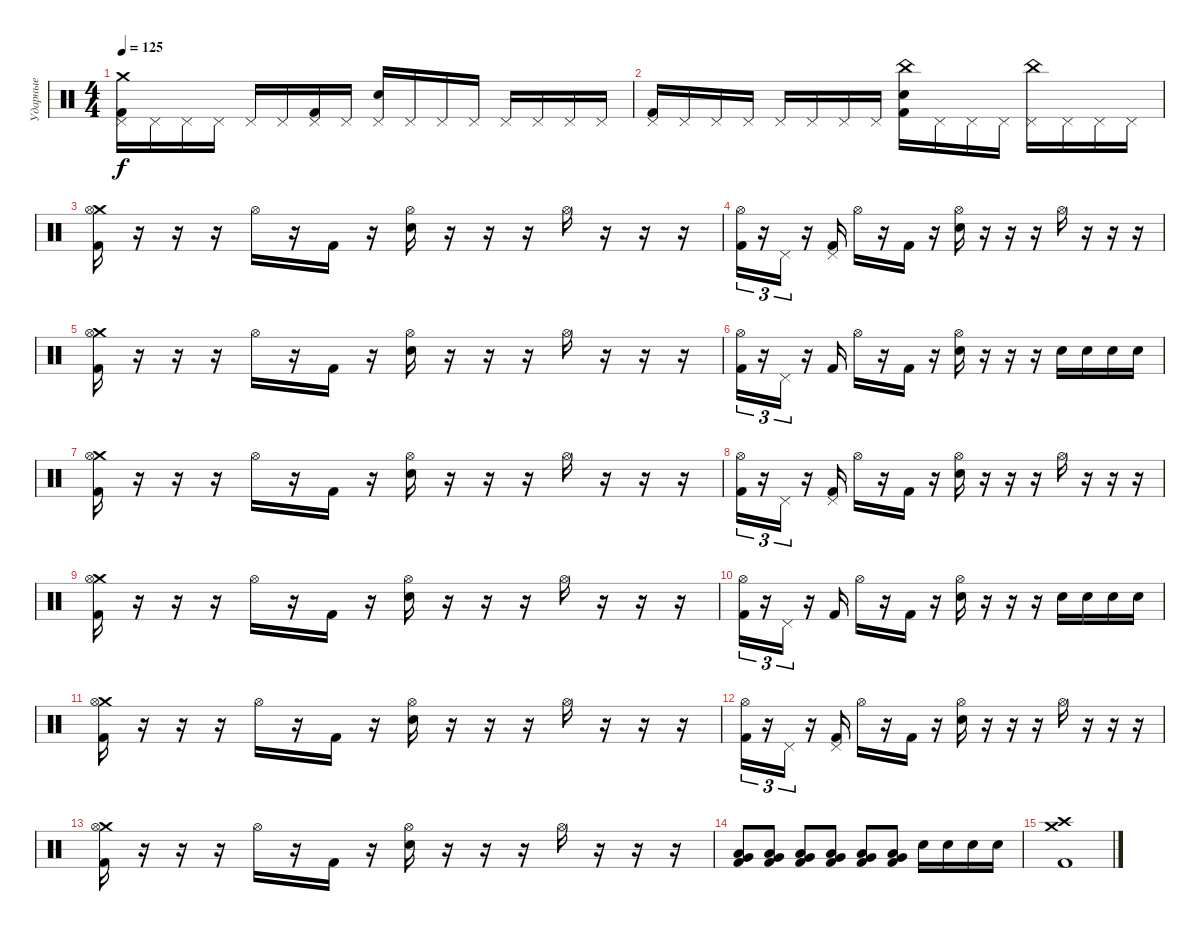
\track ("Ударные" "Ударные") {instrument percussion}
\staff {score}
\articulation defaults
\ts (4 4)
\tempo 125
\clef neutral
\ks c
("Crash medium (hit)" "Pedal Hi-Hat (hit)" "Kick (hit) 2").16{dy f} "Pedal Hi-Hat (hit)".16 "Pedal Hi-Hat (hit)".16 "Pedal Hi-Hat (hit)".16 "Pedal Hi-Hat (hit)".16 "Pedal Hi-Hat (hit)".16 ("Pedal Hi-Hat (hit)" "Kick (hit) 2").16 "Pedal Hi-Hat (hit)".16 ("Hand Clap (hit)" "Pedal Hi-Hat (hit)").16 "Pedal Hi-Hat (hit)".16 "Pedal Hi-Hat (hit)".16 "Pedal Hi-Hat (hit)".16 "Pedal Hi-Hat (hit)".16 "Pedal Hi-Hat (hit)".16 "Pedal Hi-Hat (hit)".16 "Pedal Hi-Hat (hit)".16 |
("Pedal Hi-Hat (hit)" "Kick (hit) 2").16 "Pedal Hi-Hat (hit)".16 "Pedal Hi-Hat (hit)".16 "Pedal Hi-Hat (hit)".16 "Pedal Hi-Hat (hit)".16 "Pedal Hi-Hat (hit)".16 "Pedal Hi-Hat (hit)".16 "Pedal Hi-Hat (hit)".16 ("Hand Clap (hit)" "China (hit)" "Kick (hit) 2").16 "Pedal Hi-Hat (hit)".16 "Pedal Hi-Hat (hit)".16 "Pedal Hi-Hat (hit)".16 ("China (hit)" "Pedal Hi-Hat (hit)").16 "Pedal Hi-Hat (hit)".16 "Pedal Hi-Hat (hit)".16 "Pedal Hi-Hat (hit)".16 |
("Crash medium (hit)" "Hi-Hat (open)" "Kick (hit) 2").16 r.16 r.16 r.16 "Hi-Hat (open)".16 r.16 "Kick (hit) 2".16 r.16 ("Snare (hit) 2" "Hi-Hat (open)").16 r.16 r.16 r.16 "Hi-Hat (open)".16 r.16 r.16 r.16 |
("Hi-Hat (open)" "Kick (hit) 2").16{tu (3 2)} r.16{tu (3 2)} "Pedal Hi-Hat (hit)".16{tu (3 2)} r.16 ("Pedal Hi-Hat (hit)" "Kick (hit) 2").16 "Hi-Hat (open)".16 r.16 "Kick (hit) 2".16 r.16 ("Snare (hit) 2" "Hi-Hat (open)").16 r.16 r.16 r.16 "Hi-Hat (open)".16 r.16 r.16 r.16 |
("Crash medium (hit)" "Hi-Hat (open)" "Kick (hit) 2").16 r.16 r.16 r.16 "Hi-Hat (open)".16 r.16 "Kick (hit) 2".16 r.16 ("Snare (hit) 2" "Hi-Hat (open)").16 r.16 r.16 r.16 "Hi-Hat (open)".16 r.16 r.16 r.16 |
("Hi-Hat (open)" "Kick (hit) 2").16{tu (3 2)} r.16{tu (3 2)} "Pedal Hi-Hat (hit)".16{tu (3 2)} r.16 "Kick (hit) 2".16 "Hi-Hat (open)".16 r.16 "Kick (hit) 2".16 r.16 ("Snare (hit) 2" "Hi-Hat (open)").16 r.16 r.16 r.16 "Snare (hit) 2".16 "Snare (hit) 2".16 "Snare (hit) 2".16 "Snare (hit) 2".16 |
("Crash medium (hit)" "Hi-Hat (open)" "Kick (hit) 2").16 r.16 r.16 r.16 "Hi-Hat (open)".16 r.16 "Kick (hit) 2".16 r.16 ("Snare (hit) 2" "Hi-Hat (open)").16 r.16 r.16 r.16 "Hi-Hat (open)".16 r.16 r.16 r.16 |
("Hi-Hat (open)" "Kick (hit) 2").16{tu (3 2)} r.16{tu (3 2)} "Pedal Hi-Hat (hit)".16{tu (3 2)} r.16 ("Pedal Hi-Hat (hit)" "Kick (hit) 2").16 "Hi-Hat (open)".16 r.16 "Kick (hit) 2".16 r.16 ("Snare (hit) 2" "Hi-Hat (open)").16 r.16 r.16 r.16 "Hi-Hat (open)".16 r.16 r.16 r.16 |
("Crash medium (hit)" "Hi-Hat (open)" "Kick (hit) 2").16 r.16 r.16 r.16 "Hi-Hat (open)".16 r.16 "Kick (hit) 2".16 r.16 ("Snare (hit) 2" "Hi-Hat (open)").16 r.16 r.16 r.16 "Hi-Hat (open)".16 r.16 r.16 r.16 |
("Hi-Hat (open)" "Kick (hit) 2").16{tu (3 2)} r.16{tu (3 2)} "Pedal Hi-Hat (hit)".16{tu (3 2)} r.16 "Kick (hit) 2".16 "Hi-Hat (open)".16 r.16 "Kick (hit) 2".16 r.16 ("Snare (hit) 2" "Hi-Hat (open)").16 r.16 r.16 r.16 "Snare (hit) 2".16 "Snare (hit) 2".16 "Snare (hit) 2".16 "Snare (hit) 2".16 |
("Crash medium (hit)" "Hi-Hat (open)" "Kick (hit) 2").16 r.16 r.16 r.16 "Hi-Hat (open)".16 r.16 "Kick (hit) 2".16 r.16 ("Snare (hit) 2" "Hi-Hat (open)").16 r.16 r.16 r.16 "Hi-Hat (open)".16 r.16 r.16 r.16 |
("Hi-Hat (open)" "Kick (hit) 2").16{tu (3 2)} r.16{tu (3 2)} "Pedal Hi-Hat (hit)".16{tu (3 2)} r.16 ("Pedal Hi-Hat (hit)" "Kick (hit) 2").16 "Hi-Hat (open)".16 r.16 "Kick (hit) 2".16 r.16 ("Snare (hit) 2" "Hi-Hat (open)").16 r.16 r.16 r.16 "Hi-Hat (open)".16 r.16 r.16 r.16 |
("Crash medium (hit)" "Hi-Hat (open)" "Kick (hit) 2").16 r.16 r.16 r.16 "Hi-Hat (open)".16 r.16 "Kick (hit) 2".16 r.16 ("Snare (hit) 2" "Hi-Hat (open)").16 r.16 r.16 r.16 "Hi-Hat (open)".16 r.16 r.16 r.16 |
("Kick (hit) 2" "Very Low Tom (hit)" "Low Floor Tom (hit)").8 ("Kick (hit) 2" "Very Low Tom (hit)" "Low Floor Tom (hit)").8 ("Kick (hit) 2" "Very Low Tom (hit)" "Low Floor Tom (hit)").8 ("Kick (hit) 2" "Very Low Tom (hit)" "Low Floor Tom (hit)").8 ("Kick (hit) 2" "Low Tom (hit)" "Very Low Tom (hit)").8 ("Kick (hit) 2" "Low Tom (hit)" "Very Low Tom (hit)").8 "Snare (hit) 2".16 "Snare (hit) 2".16 "Snare (hit) 2".16 "Snare (hit) 2".16 |
("Crash high (hit)" "Crash medium (hit)" "Kick (hit) 2").1
